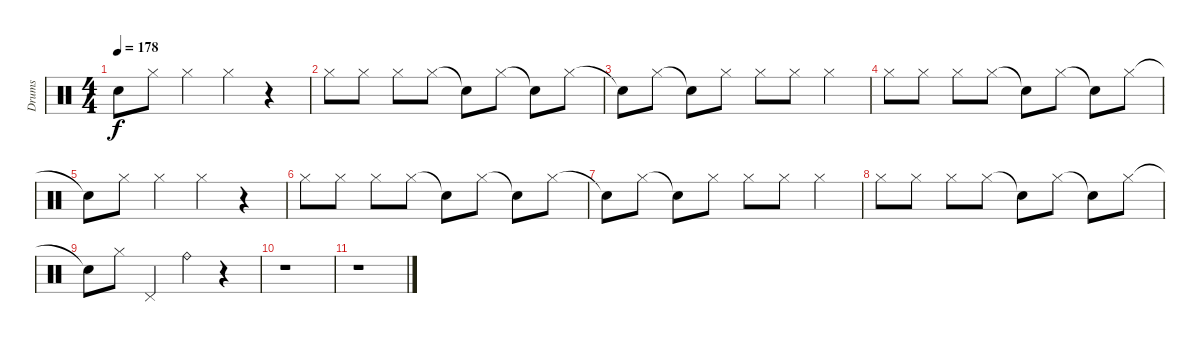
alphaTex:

\track ("Drums" "Drums") {mute instrument percussion}
\staff {score}
\articulation defaults
\ts (4 4)
\tempo 178
\clef neutral
\ks c "Snare (hit)"{t}.8{dy f} "Hi-Hat (closed)".8 "Hi-Hat (closed)".4 "Hi-Hat (closed)".4
r.4 |
"Hi-Hat (closed)".8 "Hi-Hat (closed)".8 "Hi-Hat (closed)".8 "Hi-Hat (closed)".8 "Snare (hit)"{t}.8 "Hi-Hat (closed)".8 "Snare (hit)"{t}.8 "Hi-Hat (closed)".8 |
"Snare (hit)"{t}.8 "Hi-Hat (closed)".8 "Snare (hit)"{t}.8 "Hi-Hat (closed)".8 "Hi-Hat (closed)".8 "Hi-Hat (closed)".8 "Hi-Hat (closed)".4 |
"Hi-Hat (closed)".8 "Hi-Hat (closed)".8 "Hi-Hat (closed)".8 "Hi-Hat (closed)".8 "Snare (hit)"{t}.8 "Hi-Hat (closed)".8 "Snare (hit)"{t}.8 "Hi-Hat (closed)".8 |
"Snare (hit)"{t}.8 "Hi-Hat (closed)".8 "Hi-Hat (closed)".4 "Hi-Hat (closed)".4 r.4 |
"Hi-Hat (closed)".8 "Hi-Hat (closed)".8 "Hi-Hat (closed)".8 "Hi-Hat (closed)".8 "Snare (hit)"{t}.8 "Hi-Hat (closed)".8 "Snare (hit)"{t}.8 "Hi-Hat (closed)".8 |
"Snare (hit)"{t}.8 "Hi-Hat (closed)".8 "Snare (hit)"{t}.8 "Hi-Hat (closed)".8 "Hi-Hat (closed)".8 "Hi-Hat (closed)".8 "Hi-Hat (closed)".4 |
"Hi-Hat (closed)".8 "Hi-Hat (closed)".8 "Hi-Hat (closed)".8 "Hi-Hat (closed)".8 "Snare (hit)"{t}.8 "Hi-Hat (closed)".8 "Snare (hit)"{t}.8 "Hi-Hat (closed)".8 |
"Snare (hit)"{t}.8 "Hi-Hat (closed)".8 "Pedal Hi-Hat (hit)".4 "Ride (bell)".4 r.4 |
r.1 |
r.1
